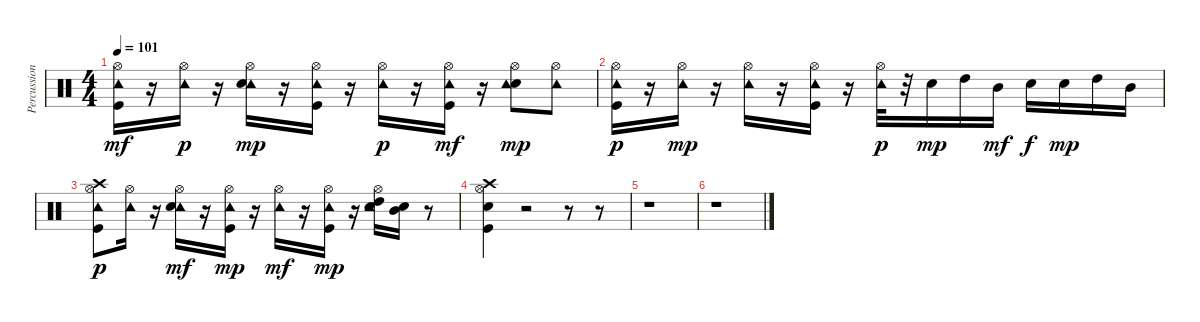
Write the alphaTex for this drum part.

\track ("Percussion" "Percussion") {instrument percussion}
\staff {score}
\articulation defaults
\ts (4 4)
\tempo 101
\clef neutral
\ks c
("Hi-Hat (open)" "Tambourine (hit)" "Kick (hit)").16{dy mf} r.16 ("Hi-Hat (open)" "Tambourine (hit)").16{dy p} r.16 ("Tambourine (hit)" "Hi-Hat (open)" "Electric Snare (hit)").16{dy mp} r.16 ("Hi-Hat (open)" "Kick (hit)" "Tambourine (hit)").16 r.16 ("Hi-Hat (open)" "Tambourine (hit)").16{dy p} r.16 ("Tambourine (hit)" "Hi-Hat (open)" "Kick (hit)").16{dy mf} r.16 ("Electric Snare (hit)" "Hi-Hat (open)" "Tambourine (hit)").8{dy mp} ("Tambourine (hit)" "Hi-Hat (open)").8 |
("Hi-Hat (open)" "Kick (hit)" "Tambourine (hit)").16{dy p} r.16 ("Tambourine (hit)" "Hi-Hat (open)").16{dy mp} r.16 ("Tambourine (hit)" "Hi-Hat (open)").16 r.16 ("Tambourine (hit)" "Kick (hit)" "Hi-Hat (open)").16 r.16 ("Hi-Hat (open)" "Tambourine (hit)").32{dy p} r.32 "Electric Snare (hit)".16{dy mp} "High Tom (hit)".16 "Mid Tom (hit)".16{dy mf} "Electric Snare (hit)".16{dy f} "Electric Snare (hit)".16{dy mp} "High Tom (hit)".16 "Mid Tom (hit)".16 |
("Crash high (hit)" "Kick (hit)" "Hi-Hat (open)" "Tambourine (hit)").8{dy p} ("Hi-Hat (open)" "Tambourine (hit)").16 r.16 ("Tambourine (hit)" "Electric Snare (hit)" "Hi-Hat (open)").16{dy mf} r.16 ("Kick (hit)" "Hi-Hat (open)" "Tambourine (hit)").16{dy mp} r.16 ("Tambourine (hit)" "Hi-Hat (open)").16{dy mf} r.16 ("Kick (hit)" "Tambourine (hit)" "Hi-Hat (open)").16{dy mp} r.16 ("Electric Snare (hit)" "Tambourine (hit)" "Hi-Hat (open)" "High Tom (hit)").16 ("Electric Snare (hit)" "Mid Tom (hit)").16 r.8 |
("Kick (hit)" "Hi-Hat (open)" "Electric Snare (hit)" "Crash high (hit)").4 r.2 r.8 r.8 |
r.1 |
r.1
